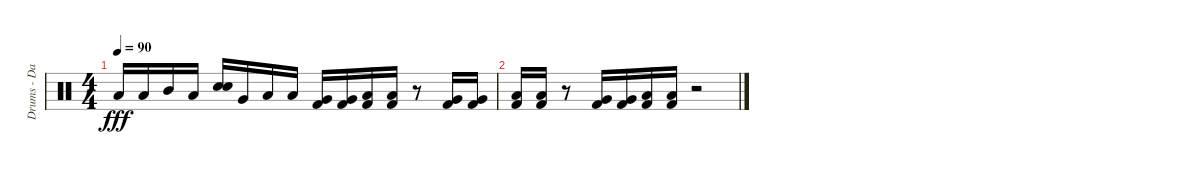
\track ("Drums - Danny Carey" "Drums - Da") {instrument percussion}
\staff {score}
\articulation defaults
\ts (4 4)
\tempo 90
\clef neutral
\ks c "Low Floor Tom (hit)".16{dy fff} "Low Floor Tom (hit)".16 "Mid Tom (hit)".16 "Low Tom (hit)".16
("Electric Snare (hit)" "Electric Snare (hit)").16{bd 240} "Very Low Tom (hit)".16 "Low Floor Tom (hit)".16 "Low Tom (hit)".16 ("Very Low Tom (hit)" "Kick (hit) 2").16 ("Very Low Tom (hit)" "Kick (hit) 2").16 ("Low Floor Tom (hit)" "Kick (hit) 2").16 ("Low Floor Tom (hit)" "Kick (hit) 2").16 r.8 ("Very Low Tom (hit)" "Kick (hit) 2").16 ("Very Low Tom (hit)" "Kick (hit) 2").16 |
("Low Floor Tom (hit)" "Kick (hit) 2").16 ("Low Floor Tom (hit)" "Kick (hit) 2").16 r.8 ("Very Low Tom (hit)" "Kick (hit) 2").16 ("Very Low Tom (hit)" "Kick (hit) 2").16 ("Low Floor Tom (hit)" "Kick (hit) 2").16 ("Low Floor Tom (hit)" "Kick (hit) 2").16 r.2
